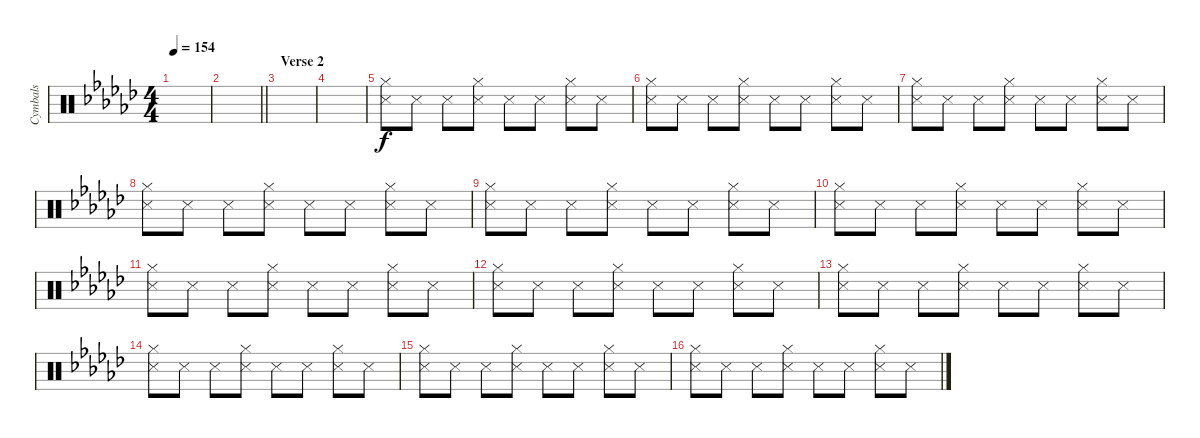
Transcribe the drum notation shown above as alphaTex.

\track ("Cymbals" "Cymbals") {instrument percussion}
\staff {score}
\articulation defaults
\ts (4 4)
\tempo 154
\clef neutral
\ks gb
|
\barLineRight lightlight
|
\section ("" "Verse 2")
|
|
("Hi-Hat (closed)" "Metronome (hit)").8 "Metronome (hit)".8 "Metronome (hit)".8 ("Hi-Hat (closed)" "Metronome (hit)").8 "Metronome (hit)".8 "Metronome (hit)".8 ("Hi-Hat (closed)" "Metronome (hit)").8 "Metronome (hit)".8 |
("Hi-Hat (closed)" "Metronome (hit)").8 "Metronome (hit)".8 "Metronome (hit)".8 ("Hi-Hat (closed)" "Metronome (hit)").8 "Metronome (hit)".8 "Metronome (hit)".8 ("Hi-Hat (closed)" "Metronome (hit)").8 "Metronome (hit)".8 |
("Hi-Hat (closed)" "Metronome (hit)").8 "Metronome (hit)".8 "Metronome (hit)".8 ("Hi-Hat (closed)" "Metronome (hit)").8 "Metronome (hit)".8 "Metronome (hit)".8 ("Hi-Hat (closed)" "Metronome (hit)").8 "Metronome (hit)".8 |
("Hi-Hat (closed)" "Metronome (hit)").8 "Metronome (hit)".8 "Metronome (hit)".8 ("Hi-Hat (closed)" "Metronome (hit)").8 "Metronome (hit)".8 "Metronome (hit)".8 ("Hi-Hat (closed)" "Metronome (hit)").8 "Metronome (hit)".8 |
("Hi-Hat (closed)" "Metronome (hit)").8 "Metronome (hit)".8 "Metronome (hit)".8 ("Hi-Hat (closed)" "Metronome (hit)").8 "Metronome (hit)".8 "Metronome (hit)".8 ("Hi-Hat (closed)" "Metronome (hit)").8 "Metronome (hit)".8 |
("Hi-Hat (closed)" "Metronome (hit)").8 "Metronome (hit)".8 "Metronome (hit)".8 ("Hi-Hat (closed)" "Metronome (hit)").8 "Metronome (hit)".8 "Metronome (hit)".8 ("Hi-Hat (closed)" "Metronome (hit)").8 "Metronome (hit)".8 |
("Hi-Hat (closed)" "Metronome (hit)").8 "Metronome (hit)".8 "Metronome (hit)".8 ("Hi-Hat (closed)" "Metronome (hit)").8 "Metronome (hit)".8 "Metronome (hit)".8 ("Hi-Hat (closed)" "Metronome (hit)").8 "Metronome (hit)".8 |
("Hi-Hat (closed)" "Metronome (hit)").8 "Metronome (hit)".8 "Metronome (hit)".8 ("Hi-Hat (closed)" "Metronome (hit)").8 "Metronome (hit)".8 "Metronome (hit)".8 ("Hi-Hat (closed)" "Metronome (hit)").8 "Metronome (hit)".8 |
("Hi-Hat (closed)" "Metronome (hit)").8 "Metronome (hit)".8 "Metronome (hit)".8 ("Hi-Hat (closed)" "Metronome (hit)").8 "Metronome (hit)".8 "Metronome (hit)".8 ("Hi-Hat (closed)" "Metronome (hit)").8 "Metronome (hit)".8 |
("Hi-Hat (closed)" "Metronome (hit)").8 "Metronome (hit)".8 "Metronome (hit)".8 ("Hi-Hat (closed)" "Metronome (hit)").8 "Metronome (hit)".8 "Metronome (hit)".8 ("Hi-Hat (closed)" "Metronome (hit)").8 "Metronome (hit)".8 |
("Hi-Hat (closed)" "Metronome (hit)").8 "Metronome (hit)".8 "Metronome (hit)".8 ("Hi-Hat (closed)" "Metronome (hit)").8 "Metronome (hit)".8 "Metronome (hit)".8 ("Hi-Hat (closed)" "Metronome (hit)").8 "Metronome (hit)".8 |
("Hi-Hat (closed)" "Metronome (hit)").8 "Metronome (hit)".8 "Metronome (hit)".8 ("Hi-Hat (closed)" "Metronome (hit)").8 "Metronome (hit)".8 "Metronome (hit)".8 ("Hi-Hat (closed)" "Metronome (hit)").8 "Metronome (hit)".8
